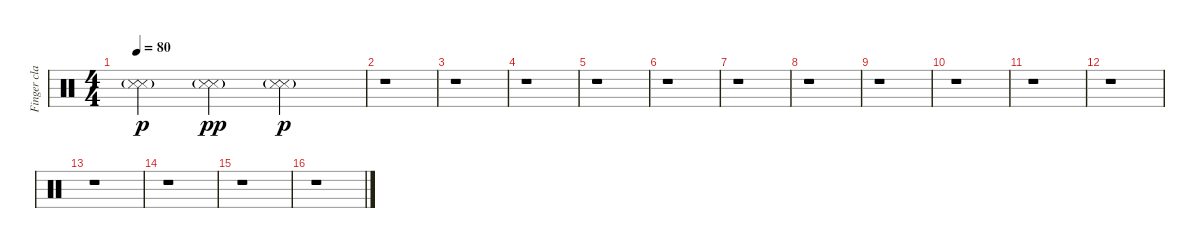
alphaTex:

\track ("Finger claps" "Finger cla") {instrument percussion}
\staff {score}
\articulation defaults
\ts (4 4)
\tempo 80
\clef neutral
\ks c
("Metronome (hit)" "Metronome (hit)"{g}).4{bd 30 dy p} ("Metronome (hit)" "Metronome (hit)"{g}).4{bd 30 dy pp} ("Metronome (hit)" "Metronome (hit)"{g}).2{bd 30 dy p} |
r.1 |
r.1 |
r.1 |
r.1 |
r.1 |
r.1 |
r.1 |
r.1 |
r.1 |
r.1 |
r.1 |
r.1 |
r.1 |
r.1 |
r.1
